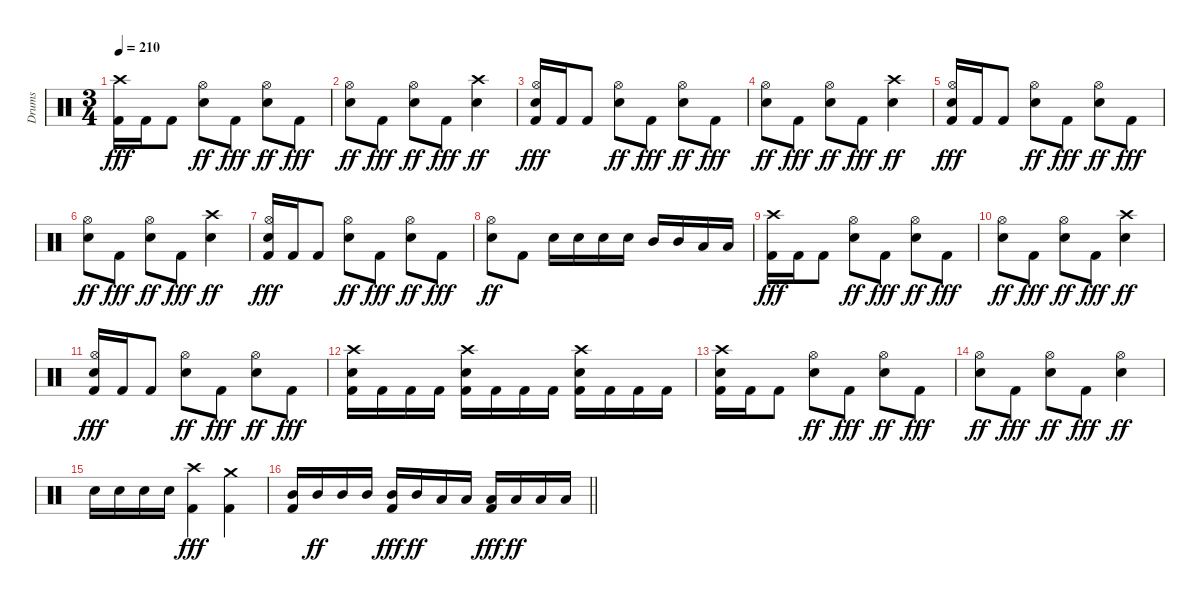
\track ("Drums" "Drums") {instrument percussion}
\staff {score}
\articulation defaults
\ts (3 4)
\tempo 210
\clef neutral
\ks c
("Crash high (hit)" "Kick (hit) 2").16{dy fff} "Kick (hit) 2".16 "Kick (hit) 2".8 ("Hi-Hat (open)" "Snare (hit) 2").8{dy ff} "Kick (hit) 2".8{dy fff} ("Hi-Hat (open)" "Snare (hit) 2").8{dy ff} "Kick (hit) 2".8{dy fff} |
("Hi-Hat (open)" "Snare (hit) 2").8{dy ff} "Kick (hit) 2".8{dy fff} ("Hi-Hat (open)" "Snare (hit) 2").8{dy ff} "Kick (hit) 2".8{dy fff} ("Crash high (hit)" "Snare (hit) 2").4{dy ff} |
("Hi-Hat (open)" "Snare (hit) 2" "Kick (hit) 2").16{dy fff} "Kick (hit) 2".16 "Kick (hit) 2".8 ("Hi-Hat (open)" "Snare (hit) 2").8{dy ff} "Kick (hit) 2".8{dy fff} ("Hi-Hat (open)" "Snare (hit) 2").8{dy ff} "Kick (hit) 2".8{dy fff} |
("Hi-Hat (open)" "Snare (hit) 2").8{dy ff} "Kick (hit) 2".8{dy fff} ("Hi-Hat (open)" "Snare (hit) 2").8{dy ff} "Kick (hit) 2".8{dy fff} ("Crash high (hit)" "Snare (hit) 2").4{dy ff} |
("Hi-Hat (open)" "Snare (hit) 2" "Kick (hit) 2").16{dy fff} "Kick (hit) 2".16 "Kick (hit) 2".8 ("Hi-Hat (open)" "Snare (hit) 2").8{dy ff} "Kick (hit) 2".8{dy fff} ("Hi-Hat (open)" "Snare (hit) 2").8{dy ff} "Kick (hit) 2".8{dy fff} |
("Hi-Hat (open)" "Snare (hit) 2").8{dy ff} "Kick (hit) 2".8{dy fff} ("Hi-Hat (open)" "Snare (hit) 2").8{dy ff} "Kick (hit) 2".8{dy fff} ("Crash high (hit)" "Snare (hit) 2").4{dy ff} |
("Hi-Hat (open)" "Snare (hit) 2" "Kick (hit) 2").16{dy fff} "Kick (hit) 2".16 "Kick (hit) 2".8 ("Hi-Hat (open)" "Snare (hit) 2").8{dy ff} "Kick (hit) 2".8{dy fff} ("Hi-Hat (open)" "Snare (hit) 2").8{dy ff} "Kick (hit) 2".8{dy fff} |
("Hi-Hat (open)" "Snare (hit) 2").8{dy ff} "Kick (hit) 2".8 "Snare (hit) 2".16 "Snare (hit) 2".16 "Snare (hit) 2".16 "Snare (hit) 2".16 "Mid Tom (hit)".16 "Mid Tom (hit)".16 "Low Tom (hit)".16 "Low Tom (hit)".16 |
("Crash high (hit)" "Kick (hit) 2").16{dy fff} "Kick (hit) 2".16 "Kick (hit) 2".8 ("Hi-Hat (open)" "Snare (hit) 2").8{dy ff} "Kick (hit) 2".8{dy fff} ("Hi-Hat (open)" "Snare (hit) 2").8{dy ff} "Kick (hit) 2".8{dy fff} |
("Hi-Hat (open)" "Snare (hit) 2").8{dy ff} "Kick (hit) 2".8{dy fff} ("Hi-Hat (open)" "Snare (hit) 2").8{dy ff} "Kick (hit) 2".8{dy fff} ("Crash high (hit)" "Snare (hit) 2").4{dy ff} |
("Hi-Hat (open)" "Snare (hit) 2" "Kick (hit) 2").16{dy fff} "Kick (hit) 2".16 "Kick (hit) 2".8 ("Hi-Hat (open)" "Snare (hit) 2").8{dy ff} "Kick (hit) 2".8{dy fff} ("Hi-Hat (open)" "Snare (hit) 2").8{dy ff} "Kick (hit) 2".8{dy fff} |
("Crash high (hit)" "Snare (hit) 2" "Kick (hit) 2").16 "Kick (hit) 2".16 "Kick (hit) 2".16 "Kick (hit) 2".16 ("Crash high (hit)" "Snare (hit) 2" "Kick (hit) 2").16 "Kick (hit) 2".16 "Kick (hit) 2".16 "Kick (hit) 2".16 ("Crash high (hit)" "Snare (hit) 2" "Kick (hit) 2").16 "Kick (hit) 2".16 "Kick (hit) 2".16 "Kick (hit) 2".16 |
("Crash high (hit)" "Snare (hit) 2" "Kick (hit) 2").16 "Kick (hit) 2".16 "Kick (hit) 2".8 ("Hi-Hat (open)" "Snare (hit) 2").8{dy ff} "Kick (hit) 2".8{dy fff} ("Hi-Hat (open)" "Snare (hit) 2").8{dy ff} "Kick (hit) 2".8{dy fff} |
("Hi-Hat (open)" "Snare (hit) 2").8{dy ff} "Kick (hit) 2".8{dy fff} ("Hi-Hat (open)" "Snare (hit) 2").8{dy ff} "Kick (hit) 2".8{dy fff} ("Hi-Hat (open)" "Snare (hit) 2").4{dy ff} |
"Snare (hit) 2".16 "Snare (hit) 2".16 "Snare (hit) 2".16 "Snare (hit) 2".16 ("Crash high (hit)" "Kick (hit) 2").4{dy fff} ("Crash medium (hit)" "Kick (hit) 2").4 |
\barLineRight lightlight
("Mid Tom (hit)" "Kick (hit) 2").16 "Mid Tom (hit)".16{dy ff} "Mid Tom (hit)".16 "Mid Tom (hit)".16 ("Mid Tom (hit)" "Kick (hit) 2").16{dy fff} "Mid Tom (hit)".16{dy ff} "Low Tom (hit)".16 "Low Tom (hit)".16 ("Low Tom (hit)" "Kick (hit) 2").16{dy fff} "Low Tom (hit)".16{dy ff} "Low Tom (hit)".16 "Low Tom (hit)".16
